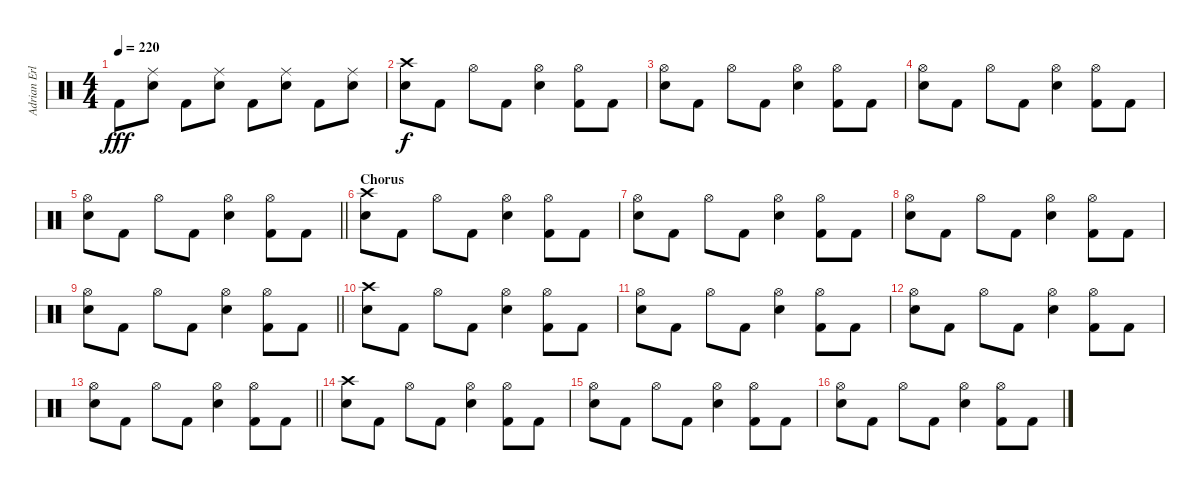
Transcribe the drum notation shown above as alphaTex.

\track ("Adrian Erlandsson" "Adrian Erl") {instrument percussion}
\staff {score}
\articulation defaults
\ts (4 4)
\tempo 220
\clef neutral
\ks c "Kick (hit) 2".8{dy fff}
("Ride (middle)" "Electric Snare (hit)").8 "Kick (hit) 2".8 ("Ride (middle)" "Electric Snare (hit)").8 "Kick (hit) 2".8 ("Ride (middle)" "Electric Snare (hit)").8 "Kick (hit) 2".8 ("Ride (middle)" "Electric Snare (hit)").8 |
("Crash high (hit)" "Electric Snare (hit)").8{dy f} "Kick (hit) 2".8 "Hi-Hat (open)".8 "Kick (hit) 2".8 ("Hi-Hat (open)" "Electric Snare (hit)").4 ("Hi-Hat (open)" "Kick (hit) 2").8 "Kick (hit) 2".8 |
("Hi-Hat (open)" "Electric Snare (hit)").8 "Kick (hit) 2".8 "Hi-Hat (open)".8 "Kick (hit) 2".8 ("Hi-Hat (open)" "Electric Snare (hit)").4 ("Hi-Hat (open)" "Kick (hit) 2").8 "Kick (hit) 2".8 |
("Hi-Hat (open)" "Electric Snare (hit)").8 "Kick (hit) 2".8 "Hi-Hat (open)".8 "Kick (hit) 2".8 ("Hi-Hat (open)" "Electric Snare (hit)").4 ("Hi-Hat (open)" "Kick (hit) 2").8 "Kick (hit) 2".8 |
\barLineRight lightlight
("Hi-Hat (open)" "Electric Snare (hit)").8 "Kick (hit) 2".8 "Hi-Hat (open)".8 "Kick (hit) 2".8 ("Hi-Hat (open)" "Electric Snare (hit)").4 ("Hi-Hat (open)" "Kick (hit) 2").8 "Kick (hit) 2".8 |
\section ("" "Chorus")
("Crash high (hit)" "Electric Snare (hit)").8 "Kick (hit) 2".8 "Hi-Hat (open)".8 "Kick (hit) 2".8 ("Hi-Hat (open)" "Electric Snare (hit)").4 ("Hi-Hat (open)" "Kick (hit) 2").8 "Kick (hit) 2".8 |
("Hi-Hat (open)" "Electric Snare (hit)").8 "Kick (hit) 2".8 "Hi-Hat (open)".8 "Kick (hit) 2".8 ("Hi-Hat (open)" "Electric Snare (hit)").4 ("Hi-Hat (open)" "Kick (hit) 2").8 "Kick (hit) 2".8 |
("Hi-Hat (open)" "Electric Snare (hit)").8 "Kick (hit) 2".8 "Hi-Hat (open)".8 "Kick (hit) 2".8 ("Hi-Hat (open)" "Electric Snare (hit)").4 ("Hi-Hat (open)" "Kick (hit) 2").8 "Kick (hit) 2".8 |
\barLineRight lightlight
("Hi-Hat (open)" "Electric Snare (hit)").8 "Kick (hit) 2".8 "Hi-Hat (open)".8 "Kick (hit) 2".8 ("Hi-Hat (open)" "Electric Snare (hit)").4 ("Hi-Hat (open)" "Kick (hit) 2").8 "Kick (hit) 2".8 |
("Crash high (hit)" "Electric Snare (hit)").8 "Kick (hit) 2".8 "Hi-Hat (open)".8 "Kick (hit) 2".8 ("Hi-Hat (open)" "Electric Snare (hit)").4 ("Hi-Hat (open)" "Kick (hit) 2").8 "Kick (hit) 2".8 |
("Hi-Hat (open)" "Electric Snare (hit)").8 "Kick (hit) 2".8 "Hi-Hat (open)".8 "Kick (hit) 2".8 ("Hi-Hat (open)" "Electric Snare (hit)").4 ("Hi-Hat (open)" "Kick (hit) 2").8 "Kick (hit) 2".8 |
("Hi-Hat (open)" "Electric Snare (hit)").8 "Kick (hit) 2".8 "Hi-Hat (open)".8 "Kick (hit) 2".8 ("Hi-Hat (open)" "Electric Snare (hit)").4 ("Hi-Hat (open)" "Kick (hit) 2").8 "Kick (hit) 2".8 |
\barLineRight lightlight
("Hi-Hat (open)" "Electric Snare (hit)").8 "Kick (hit) 2".8 "Hi-Hat (open)".8 "Kick (hit) 2".8 ("Hi-Hat (open)" "Electric Snare (hit)").4 ("Hi-Hat (open)" "Kick (hit) 2").8 "Kick (hit) 2".8 |
("Crash high (hit)" "Electric Snare (hit)").8 "Kick (hit) 2".8 "Hi-Hat (open)".8 "Kick (hit) 2".8 ("Hi-Hat (open)" "Electric Snare (hit)").4 ("Hi-Hat (open)" "Kick (hit) 2").8 "Kick (hit) 2".8 |
("Hi-Hat (open)" "Electric Snare (hit)").8 "Kick (hit) 2".8 "Hi-Hat (open)".8 "Kick (hit) 2".8 ("Hi-Hat (open)" "Electric Snare (hit)").4 ("Hi-Hat (open)" "Kick (hit) 2").8 "Kick (hit) 2".8 |
("Hi-Hat (open)" "Electric Snare (hit)").8 "Kick (hit) 2".8 "Hi-Hat (open)".8 "Kick (hit) 2".8 ("Hi-Hat (open)" "Electric Snare (hit)").4 ("Hi-Hat (open)" "Kick (hit) 2").8 "Kick (hit) 2".8
